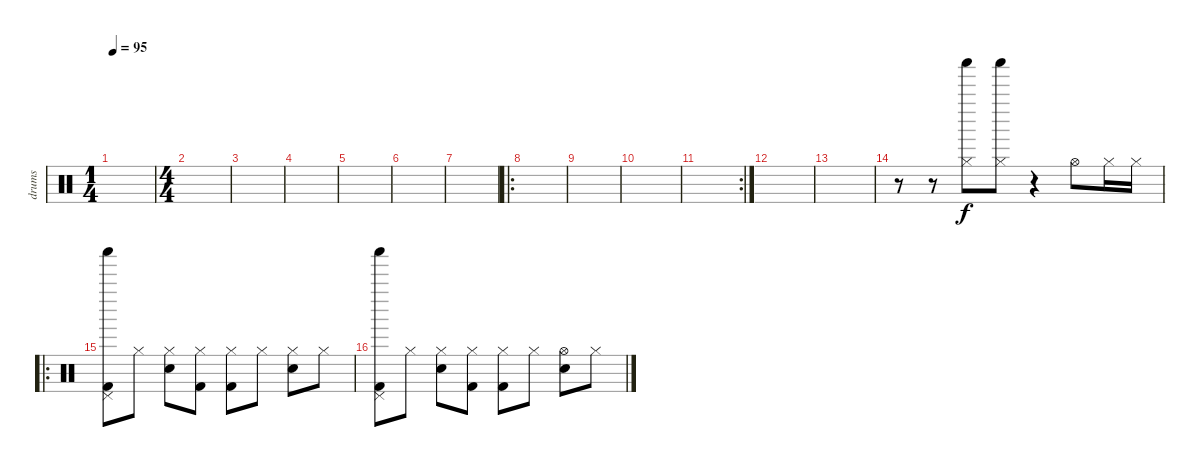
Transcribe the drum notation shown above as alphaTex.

\track ("drums" "drums") {instrument percussion}
\staff {score}
\articulation defaults
\ts (1 4)
\tempo 95
\clef neutral
\ks c
|
\ts (4 4)
|
|
|
|
|
|
\ro
|
|
|
\rc 2
|
|
|
r.8 r.8 ("Shaker (hit)" "Hi-Hat (closed)").8 ("Shaker (hit)" "Hi-Hat (closed)").8 r.4 "Hi-Hat (open)".8 "Hi-Hat (closed)".16 "Hi-Hat (closed)".16 |
\ro
("Kick (hit) 2" "Shaker (hit)" "Pedal Hi-Hat (hit)").8 "Hi-Hat (closed)".8 ("Snare (hit) 2" "Hi-Hat (closed)").8 ("Kick (hit) 2" "Hi-Hat (closed)").8 ("Kick (hit) 2" "Hi-Hat (closed)").8 "Hi-Hat (closed)".8 ("Snare (hit) 2" "Hi-Hat (closed)").8 "Hi-Hat (closed)".8 |
("Kick (hit) 2" "Shaker (hit)" "Pedal Hi-Hat (hit)").8 "Hi-Hat (closed)".8 ("Snare (hit) 2" "Hi-Hat (closed)").8 ("Kick (hit) 2" "Hi-Hat (closed)").8 ("Kick (hit) 2" "Hi-Hat (closed)").8 "Hi-Hat (closed)".8 ("Snare (hit) 2" "Hi-Hat (open)").8 "Hi-Hat (closed)".8
